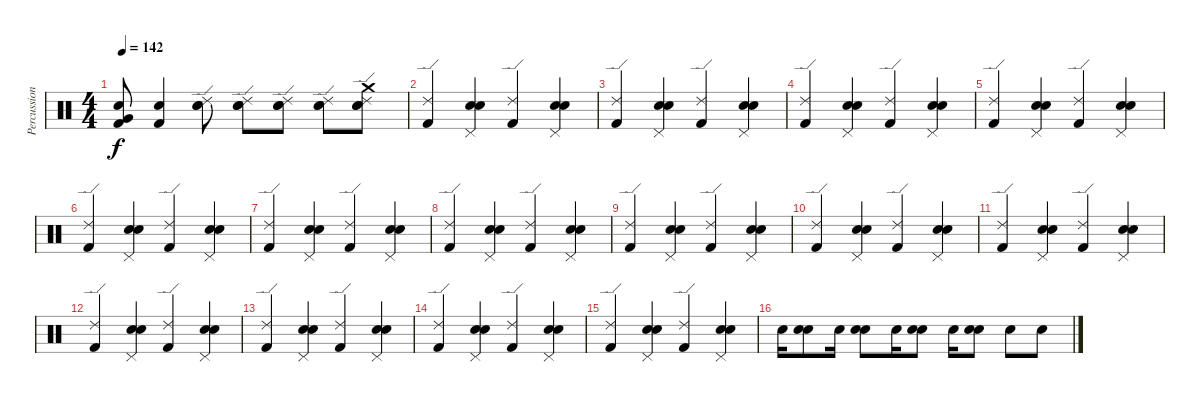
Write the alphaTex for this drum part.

\track ("Percussions" "Percussion") {instrument percussion}
\staff {score}
\articulation defaults
\ts (4 4)
\tempo 142
\clef neutral
\ks c
("Kick (hit) 2" "Very Low Tom (hit)" "Electric Snare (hit)").8{dy f} ("Kick (hit) 2" "Electric Snare (hit)").4 ("Snare (hit) 2" "Electric Snare (hit)" "Ride (edge) 2").8 ("Snare (hit) 2" "Electric Snare (hit)" "Ride (edge) 2").8 ("Snare (hit) 2" "Electric Snare (hit)" "Ride (edge) 2").8 ("Snare (hit) 2" "Electric Snare (hit)" "Ride (edge) 2").8 ("Snare (hit) 2" "Electric Snare (hit)" "Ride (edge) 2" "Crash medium (hit)").8 |
("Kick (hit) 2" "Ride (edge) 2").4 ("Snare (hit) 2" "Electric Snare (hit)" "Pedal Hi-Hat (hit)").4 ("Kick (hit) 2" "Ride (edge) 2").4 ("Snare (hit) 2" "Electric Snare (hit)" "Pedal Hi-Hat (hit)").4 |
("Kick (hit) 2" "Ride (edge) 2").4 ("Snare (hit) 2" "Electric Snare (hit)" "Pedal Hi-Hat (hit)").4 ("Kick (hit) 2" "Ride (edge) 2").4 ("Snare (hit) 2" "Electric Snare (hit)" "Pedal Hi-Hat (hit)").4 |
("Kick (hit) 2" "Ride (edge) 2").4 ("Snare (hit) 2" "Electric Snare (hit)" "Pedal Hi-Hat (hit)").4 ("Kick (hit) 2" "Ride (edge) 2").4 ("Snare (hit) 2" "Electric Snare (hit)" "Pedal Hi-Hat (hit)").4 |
("Kick (hit) 2" "Ride (edge) 2").4 ("Snare (hit) 2" "Electric Snare (hit)" "Pedal Hi-Hat (hit)").4 ("Kick (hit) 2" "Ride (edge) 2").4 ("Snare (hit) 2" "Electric Snare (hit)" "Pedal Hi-Hat (hit)").4 |
("Kick (hit) 2" "Ride (edge) 2").4 ("Snare (hit) 2" "Electric Snare (hit)" "Pedal Hi-Hat (hit)").4 ("Kick (hit) 2" "Ride (edge) 2").4 ("Snare (hit) 2" "Electric Snare (hit)" "Pedal Hi-Hat (hit)").4 |
("Kick (hit) 2" "Ride (edge) 2").4 ("Snare (hit) 2" "Electric Snare (hit)" "Pedal Hi-Hat (hit)").4 ("Kick (hit) 2" "Ride (edge) 2").4 ("Snare (hit) 2" "Electric Snare (hit)" "Pedal Hi-Hat (hit)").4 |
("Kick (hit) 2" "Ride (edge) 2").4 ("Snare (hit) 2" "Electric Snare (hit)" "Pedal Hi-Hat (hit)").4 ("Kick (hit) 2" "Ride (edge) 2").4 ("Snare (hit) 2" "Electric Snare (hit)" "Pedal Hi-Hat (hit)").4 |
("Kick (hit) 2" "Ride (edge) 2").4 ("Snare (hit) 2" "Electric Snare (hit)" "Pedal Hi-Hat (hit)").4 ("Kick (hit) 2" "Ride (edge) 2").4 ("Snare (hit) 2" "Electric Snare (hit)" "Pedal Hi-Hat (hit)").4 |
("Kick (hit) 2" "Ride (edge) 2").4 ("Snare (hit) 2" "Electric Snare (hit)" "Pedal Hi-Hat (hit)").4 ("Kick (hit) 2" "Ride (edge) 2").4 ("Snare (hit) 2" "Electric Snare (hit)" "Pedal Hi-Hat (hit)").4 |
("Kick (hit) 2" "Ride (edge) 2").4 ("Snare (hit) 2" "Electric Snare (hit)" "Pedal Hi-Hat (hit)").4 ("Kick (hit) 2" "Ride (edge) 2").4 ("Snare (hit) 2" "Electric Snare (hit)" "Pedal Hi-Hat (hit)").4 |
("Kick (hit) 2" "Ride (edge) 2").4 ("Snare (hit) 2" "Electric Snare (hit)" "Pedal Hi-Hat (hit)").4 ("Kick (hit) 2" "Ride (edge) 2").4 ("Snare (hit) 2" "Electric Snare (hit)" "Pedal Hi-Hat (hit)").4 |
("Kick (hit) 2" "Ride (edge) 2").4 ("Snare (hit) 2" "Electric Snare (hit)" "Pedal Hi-Hat (hit)").4 ("Kick (hit) 2" "Ride (edge) 2").4 ("Snare (hit) 2" "Electric Snare (hit)" "Pedal Hi-Hat (hit)").4 |
("Kick (hit) 2" "Ride (edge) 2").4 ("Snare (hit) 2" "Electric Snare (hit)" "Pedal Hi-Hat (hit)").4 ("Kick (hit) 2" "Ride (edge) 2").4 ("Snare (hit) 2" "Electric Snare (hit)" "Pedal Hi-Hat (hit)").4 |
("Kick (hit) 2" "Ride (edge) 2").4 ("Snare (hit) 2" "Electric Snare (hit)" "Pedal Hi-Hat (hit)").4 ("Kick (hit) 2" "Ride (edge) 2").4 ("Snare (hit) 2" "Electric Snare (hit)" "Pedal Hi-Hat (hit)").4 |
"Snare (hit) 2".16 ("Snare (hit) 2" "Electric Snare (hit)").8 "Snare (hit) 2".16 ("Snare (hit) 2" "Electric Snare (hit)").8 "Snare (hit) 2".16 ("Snare (hit) 2" "Electric Snare (hit)").8 "Snare (hit) 2".16 ("Snare (hit) 2" "Electric Snare (hit)").8 "Electric Snare (hit)".8 "Electric Snare (hit)".8
